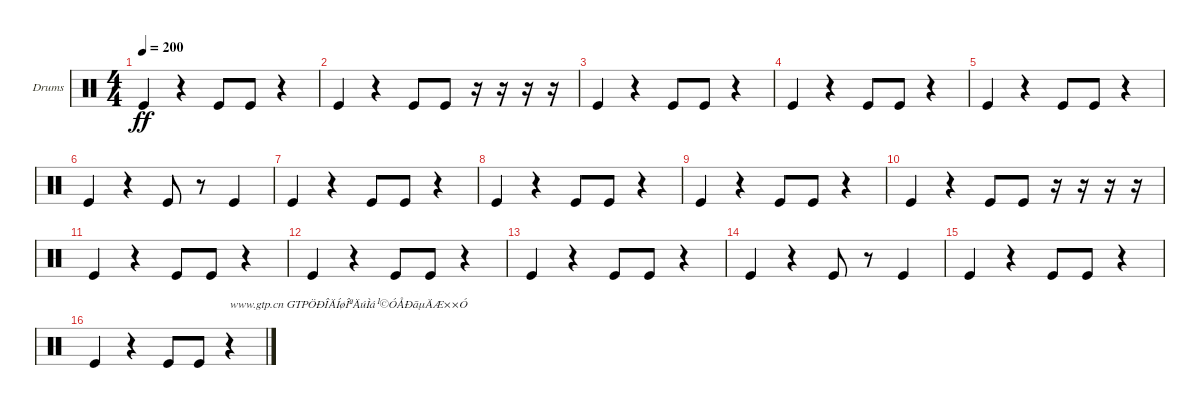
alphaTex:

\bracketExtendMode groupsimilarinstruments
\firstSystemTrackNameOrientation horizontal
\otherSystemsTrackNameOrientation horizontal
\track ("Drumkit" "Drums") {instrument percussion}
\staff {score}
\articulation defaults
\ts (4 4)
\tempo 200
\clef neutral
\ks c "Kick (hit)".4{dy ff}
r.4 "Kick (hit)".8 "Kick (hit)".8 r.4 |
"Kick (hit)".4 r.4 "Kick (hit)".8 "Kick (hit)".8 r.16 r.16 r.16 r.16 |
"Kick (hit)".4 r.4 "Kick (hit)".8 "Kick (hit)".8 r.4 |
"Kick (hit)".4 r.4 "Kick (hit)".8 "Kick (hit)".8 r.4 |
"Kick (hit)".4 r.4 "Kick (hit)".8 "Kick (hit)".8 r.4 |
"Kick (hit)".4 r.4 "Kick (hit)".8 r.8 "Kick (hit)".4 |
"Kick (hit)".4 r.4 "Kick (hit)".8 "Kick (hit)".8 r.4 |
"Kick (hit)".4 r.4 "Kick (hit)".8 "Kick (hit)".8 r.4 |
"Kick (hit)".4 r.4 "Kick (hit)".8 "Kick (hit)".8 r.4 |
"Kick (hit)".4 r.4 "Kick (hit)".8 "Kick (hit)".8 r.16 r.16 r.16 r.16 |
"Kick (hit)".4 r.4 "Kick (hit)".8 "Kick (hit)".8 r.4 |
"Kick (hit)".4 r.4 "Kick (hit)".8 "Kick (hit)".8 r.4 |
"Kick (hit)".4 r.4 "Kick (hit)".8 "Kick (hit)".8 r.4 |
"Kick (hit)".4 r.4 "Kick (hit)".8 r.8 "Kick (hit)".4 |
"Kick (hit)".4 r.4 "Kick (hit)".8 "Kick (hit)".8 r.4 |
"Kick (hit)".4 r.4 "Kick (hit)".8 "Kick (hit)".8 r.4{txt "www.gtp.cn GTPÖÐÎÄÍøÎªÄúÌá¹©ÓÅÐãµÄÆ××Ó"}
